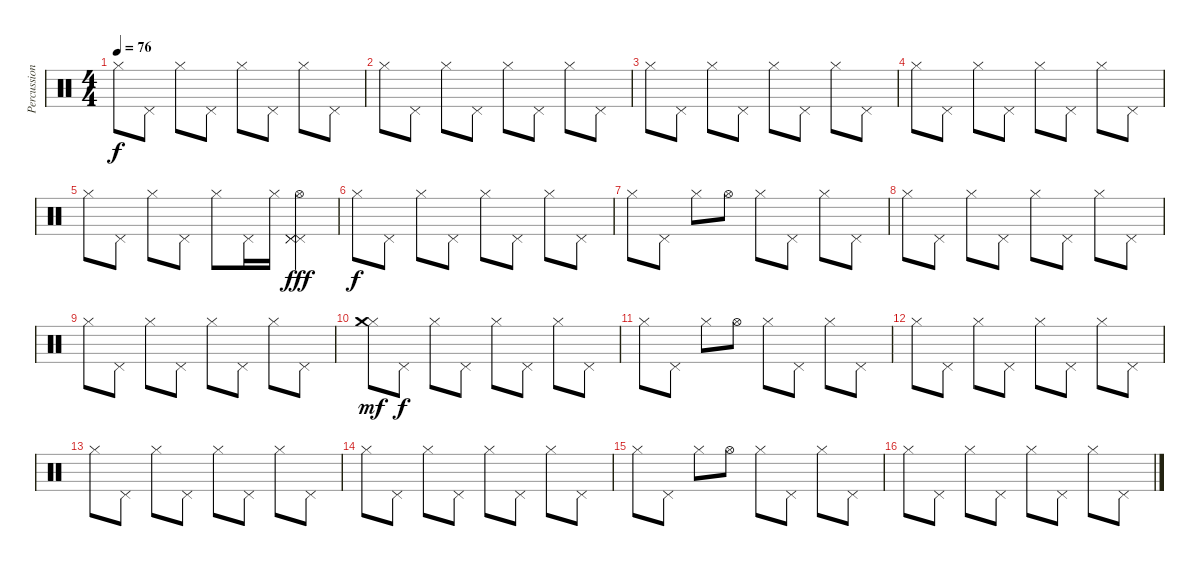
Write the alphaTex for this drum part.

\track ("Percussion" "Percussion") {instrument percussion}
\staff {score}
\articulation defaults
\ts (4 4)
\tempo 76
\clef neutral
\ks c "Hi-Hat (closed)".8{dy f} "Pedal Hi-Hat (hit)".8 "Hi-Hat (closed)".8 "Pedal Hi-Hat (hit)".8 "Hi-Hat (closed)".8 "Pedal Hi-Hat (hit)".8 "Hi-Hat (closed)".8 "Pedal Hi-Hat (hit)".8
|
"Hi-Hat (closed)".8 "Pedal Hi-Hat (hit)".8 "Hi-Hat (closed)".8 "Pedal Hi-Hat (hit)".8 "Hi-Hat (closed)".8 "Pedal Hi-Hat (hit)".8 "Hi-Hat (closed)".8 "Pedal Hi-Hat (hit)".8 |
"Hi-Hat (closed)".8 "Pedal Hi-Hat (hit)".8 "Hi-Hat (closed)".8 "Pedal Hi-Hat (hit)".8 "Hi-Hat (closed)".8 "Pedal Hi-Hat (hit)".8 "Hi-Hat (closed)".8 "Pedal Hi-Hat (hit)".8 |
"Hi-Hat (closed)".8 "Pedal Hi-Hat (hit)".8 "Hi-Hat (closed)".8 "Pedal Hi-Hat (hit)".8 "Hi-Hat (closed)".8 "Pedal Hi-Hat (hit)".8 "Hi-Hat (closed)".8 "Pedal Hi-Hat (hit)".8 |
"Hi-Hat (closed)".8 "Pedal Hi-Hat (hit)".8 "Hi-Hat (closed)".8 "Pedal Hi-Hat (hit)".8 "Hi-Hat (closed)".8 "Pedal Hi-Hat (hit)".16 "Hi-Hat (closed)".16 ("Pedal Hi-Hat (hit)" "Pedal Hi-Hat (hit)" "Pedal Hi-Hat (hit)" "Hi-Hat (open)").4{dy fff} |
"Hi-Hat (closed)".8{dy f} "Pedal Hi-Hat (hit)".8 "Hi-Hat (closed)".8 "Pedal Hi-Hat (hit)".8 "Hi-Hat (closed)".8 "Pedal Hi-Hat (hit)".8 "Hi-Hat (closed)".8 "Pedal Hi-Hat (hit)".8 |
"Hi-Hat (closed)".8 "Pedal Hi-Hat (hit)".8 "Hi-Hat (closed)".8 "Hi-Hat (open)".8 "Hi-Hat (closed)".8 "Pedal Hi-Hat (hit)".8 "Hi-Hat (closed)".8 "Pedal Hi-Hat (hit)".8 |
"Hi-Hat (closed)".8 "Pedal Hi-Hat (hit)".8 "Hi-Hat (closed)".8 "Pedal Hi-Hat (hit)".8 "Hi-Hat (closed)".8 "Pedal Hi-Hat (hit)".8 "Hi-Hat (closed)".8 "Pedal Hi-Hat (hit)".8 |
"Hi-Hat (closed)".8 "Pedal Hi-Hat (hit)".8 "Hi-Hat (closed)".8 "Pedal Hi-Hat (hit)".8 "Hi-Hat (closed)".8 "Pedal Hi-Hat (hit)".8 "Hi-Hat (closed)".8 "Pedal Hi-Hat (hit)".8 |
("Hi-Hat (closed)" "Crash medium (hit)").8{dy mf} "Pedal Hi-Hat (hit)".8{dy f} "Hi-Hat (closed)".8 "Pedal Hi-Hat (hit)".8 "Hi-Hat (closed)".8 "Pedal Hi-Hat (hit)".8 "Hi-Hat (closed)".8 "Pedal Hi-Hat (hit)".8 |
"Hi-Hat (closed)".8 "Pedal Hi-Hat (hit)".8 "Hi-Hat (closed)".8 "Hi-Hat (open)".8 "Hi-Hat (closed)".8 "Pedal Hi-Hat (hit)".8 "Hi-Hat (closed)".8 "Pedal Hi-Hat (hit)".8 |
"Hi-Hat (closed)".8 "Pedal Hi-Hat (hit)".8 "Hi-Hat (closed)".8 "Pedal Hi-Hat (hit)".8 "Hi-Hat (closed)".8 "Pedal Hi-Hat (hit)".8 "Hi-Hat (closed)".8 "Pedal Hi-Hat (hit)".8 |
"Hi-Hat (closed)".8 "Pedal Hi-Hat (hit)".8 "Hi-Hat (closed)".8 "Pedal Hi-Hat (hit)".8 "Hi-Hat (closed)".8 "Pedal Hi-Hat (hit)".8 "Hi-Hat (closed)".8 "Pedal Hi-Hat (hit)".8 |
"Hi-Hat (closed)".8 "Pedal Hi-Hat (hit)".8 "Hi-Hat (closed)".8 "Pedal Hi-Hat (hit)".8 "Hi-Hat (closed)".8 "Pedal Hi-Hat (hit)".8 "Hi-Hat (closed)".8 "Pedal Hi-Hat (hit)".8 |
"Hi-Hat (closed)".8 "Pedal Hi-Hat (hit)".8 "Hi-Hat (closed)".8 "Hi-Hat (open)".8 "Hi-Hat (closed)".8 "Pedal Hi-Hat (hit)".8 "Hi-Hat (closed)".8 "Pedal Hi-Hat (hit)".8 |
"Hi-Hat (closed)".8 "Pedal Hi-Hat (hit)".8 "Hi-Hat (closed)".8 "Pedal Hi-Hat (hit)".8 "Hi-Hat (closed)".8 "Pedal Hi-Hat (hit)".8 "Hi-Hat (closed)".8 "Pedal Hi-Hat (hit)".8
